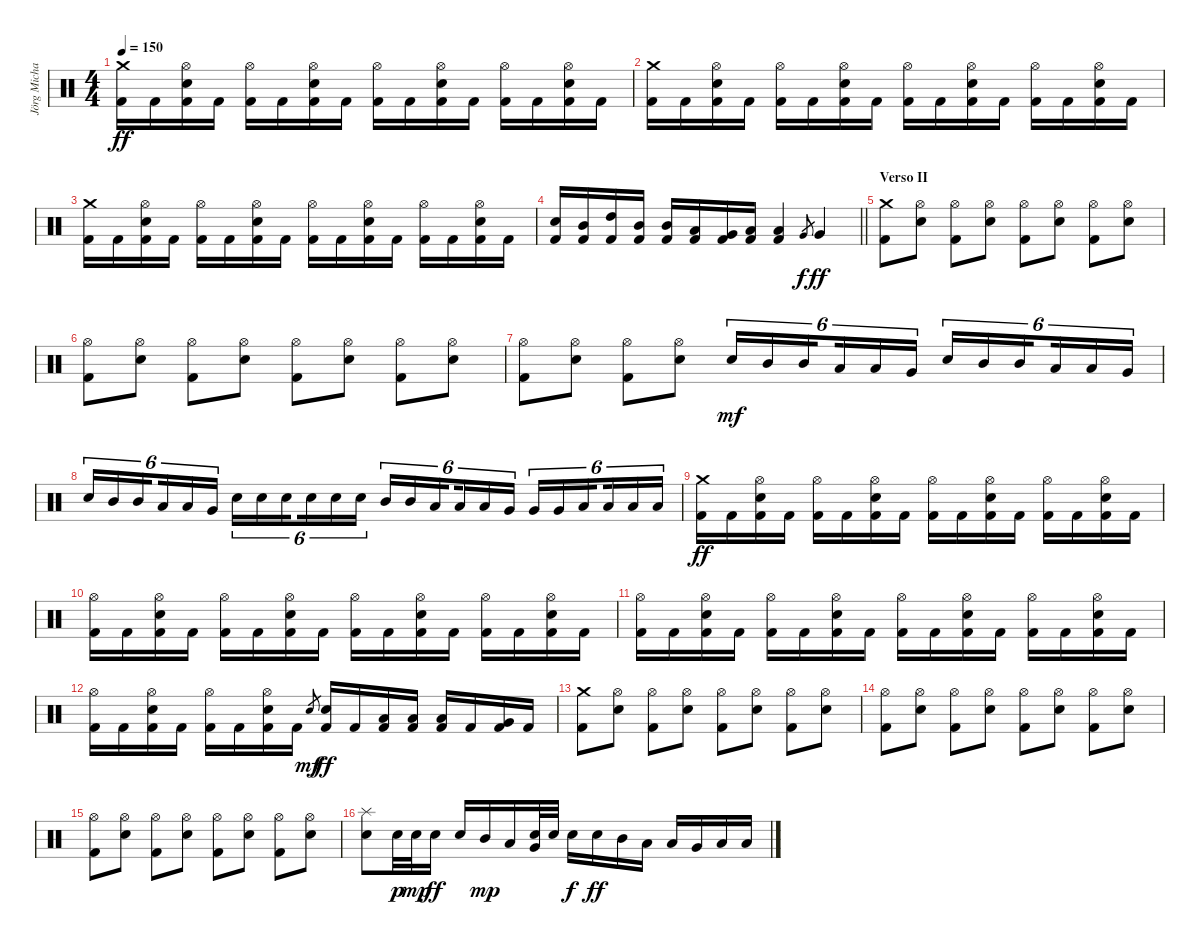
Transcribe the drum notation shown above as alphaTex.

\track ("Jörg Michael" "Jörg Micha") {instrument percussion}
\staff {score}
\articulation defaults
\ts (4 4)
\tempo 150
\clef neutral
\ks c
("Crash medium (hit)" "Kick (hit) 2").16{dy ff} "Kick (hit) 2".16 ("Hi-Hat (open)" "Electric Snare (hit)" "Kick (hit) 2").16 "Kick (hit) 2".16 ("Hi-Hat (open)" "Kick (hit) 2").16 "Kick (hit) 2".16 ("Hi-Hat (open)" "Electric Snare (hit)" "Kick (hit) 2").16 "Kick (hit) 2".16 ("Hi-Hat (open)" "Kick (hit) 2").16 "Kick (hit) 2".16 ("Hi-Hat (open)" "Electric Snare (hit)" "Kick (hit) 2").16 "Kick (hit) 2".16 ("Hi-Hat (open)" "Kick (hit) 2").16 "Kick (hit) 2".16 ("Hi-Hat (open)" "Electric Snare (hit)" "Kick (hit) 2").16 "Kick (hit) 2".16 |
("Crash medium (hit)" "Kick (hit) 2").16 "Kick (hit) 2".16 ("Hi-Hat (open)" "Electric Snare (hit)" "Kick (hit) 2").16 "Kick (hit) 2".16 ("Hi-Hat (open)" "Kick (hit) 2").16 "Kick (hit) 2".16 ("Hi-Hat (open)" "Electric Snare (hit)" "Kick (hit) 2").16 "Kick (hit) 2".16 ("Hi-Hat (open)" "Kick (hit) 2").16 "Kick (hit) 2".16 ("Hi-Hat (open)" "Electric Snare (hit)" "Kick (hit) 2").16 "Kick (hit) 2".16 ("Hi-Hat (open)" "Kick (hit) 2").16 "Kick (hit) 2".16 ("Hi-Hat (open)" "Electric Snare (hit)" "Kick (hit) 2").16 "Kick (hit) 2".16 |
("Crash medium (hit)" "Kick (hit) 2").16 "Kick (hit) 2".16 ("Hi-Hat (open)" "Electric Snare (hit)" "Kick (hit) 2").16 "Kick (hit) 2".16 ("Hi-Hat (open)" "Kick (hit) 2").16 "Kick (hit) 2".16 ("Hi-Hat (open)" "Electric Snare (hit)" "Kick (hit) 2").16 "Kick (hit) 2".16 ("Hi-Hat (open)" "Kick (hit) 2").16 "Kick (hit) 2".16 ("Hi-Hat (open)" "Electric Snare (hit)" "Kick (hit) 2").16 "Kick (hit) 2".16 ("Hi-Hat (open)" "Kick (hit) 2").16 "Kick (hit) 2".16 ("Hi-Hat (open)" "Electric Snare (hit)" "Kick (hit) 2").16 "Kick (hit) 2".16 |
\barLineRight lightlight
("Electric Snare (hit)" "Kick (hit) 2").16 ("Mid Tom (hit)" "Kick (hit) 2").16 ("High Tom (hit)" "Kick (hit) 2").16 ("Mid Tom (hit)" "Kick (hit) 2").16 ("Mid Tom (hit)" "Kick (hit) 2").16 ("Low Tom (hit)" "Kick (hit) 2").16 ("Very Low Tom (hit)" "Kick (hit) 2").16 ("Low Floor Tom (hit)" "Kick (hit) 2").16 ("Low Tom (hit)" "Kick (hit) 2").4 "Very Low Tom (hit)".8{gr dy f} "Very Low Tom (hit)".4{dy ff} |
\section ("" "Verso II")
("Crash medium (hit)" "Kick (hit) 2").8 ("Hi-Hat (open)" "Electric Snare (hit)").8 ("Hi-Hat (open)" "Kick (hit) 2").8 ("Hi-Hat (open)" "Electric Snare (hit)").8 ("Hi-Hat (open)" "Kick (hit) 2").8 ("Hi-Hat (open)" "Electric Snare (hit)").8 ("Hi-Hat (open)" "Kick (hit) 2").8 ("Hi-Hat (open)" "Electric Snare (hit)").8 |
("Hi-Hat (open)" "Kick (hit) 2").8 ("Hi-Hat (open)" "Electric Snare (hit)").8 ("Hi-Hat (open)" "Kick (hit) 2").8 ("Hi-Hat (open)" "Electric Snare (hit)").8 ("Hi-Hat (open)" "Kick (hit) 2").8 ("Hi-Hat (open)" "Electric Snare (hit)").8 ("Hi-Hat (open)" "Kick (hit) 2").8 ("Hi-Hat (open)" "Electric Snare (hit)").8 |
("Hi-Hat (open)" "Kick (hit) 2").8 ("Hi-Hat (open)" "Electric Snare (hit)").8 ("Hi-Hat (open)" "Kick (hit) 2").8 ("Hi-Hat (open)" "Electric Snare (hit)").8 "Electric Snare (hit)".16{tu (6 4) dy mf} "Mid Tom (hit)".16{tu (6 4)} "Mid Tom (hit)".16{tu (6 4) beam splitsecondary} "Low Tom (hit)".16{tu (6 4)} "Low Tom (hit)".16{tu (6 4)} "Very Low Tom (hit)".16{tu (6 4)} "Electric Snare (hit)".16{tu (6 4)} "Mid Tom (hit)".16{tu (6 4)} "Mid Tom (hit)".16{tu (6 4) beam splitsecondary} "Low Tom (hit)".16{tu (6 4)} "Low Tom (hit)".16{tu (6 4)} "Very Low Tom (hit)".16{tu (6 4)} |
"Electric Snare (hit)".16{tu (6 4)} "Mid Tom (hit)".16{tu (6 4)} "Mid Tom (hit)".16{tu (6 4) beam splitsecondary} "Low Tom (hit)".16{tu (6 4)} "Low Tom (hit)".16{tu (6 4)} "Very Low Tom (hit)".16{tu (6 4)} "Electric Snare (hit)".16{tu (6 4)} "Electric Snare (hit)".16{tu (6 4)} "Electric Snare (hit)".16{tu (6 4) beam splitsecondary} "Electric Snare (hit)".16{tu (6 4)} "Electric Snare (hit)".16{tu (6 4)} "Electric Snare (hit)".16{tu (6 4)} "Mid Tom (hit)".16{tu (6 4)} "Mid Tom (hit)".16{tu (6 4)} "Low Tom (hit)".16{tu (6 4) beam splitsecondary} "Low Tom (hit)".16{tu (6 4)} "Low Tom (hit)".16{tu (6 4)} "Very Low Tom (hit)".16{tu (6 4)} "Very Low Tom (hit)".16{tu (6 4)} "Very Low Tom (hit)".16{tu (6 4)} "Low Floor Tom (hit)".16{tu (6 4) beam splitsecondary} "Low Floor Tom (hit)".16{tu (6 4)} "Low Floor Tom (hit)".16{tu (6 4)} "Low Floor Tom (hit)".16{tu (6 4)} |
("Crash medium (hit)" "Kick (hit) 2").16{dy ff} "Kick (hit) 2".16 ("Hi-Hat (open)" "Electric Snare (hit)" "Kick (hit) 2").16 "Kick (hit) 2".16 ("Hi-Hat (open)" "Kick (hit) 2").16 "Kick (hit) 2".16 ("Hi-Hat (open)" "Electric Snare (hit)" "Kick (hit) 2").16 "Kick (hit) 2".16 ("Hi-Hat (open)" "Kick (hit) 2").16 "Kick (hit) 2".16 ("Hi-Hat (open)" "Electric Snare (hit)" "Kick (hit) 2").16 "Kick (hit) 2".16 ("Hi-Hat (open)" "Kick (hit) 2").16 "Kick (hit) 2".16 ("Hi-Hat (open)" "Electric Snare (hit)" "Kick (hit) 2").16 "Kick (hit) 2".16 |
("Hi-Hat (open)" "Kick (hit) 2").16 "Kick (hit) 2".16 ("Hi-Hat (open)" "Electric Snare (hit)" "Kick (hit) 2").16 "Kick (hit) 2".16 ("Hi-Hat (open)" "Kick (hit) 2").16 "Kick (hit) 2".16 ("Hi-Hat (open)" "Electric Snare (hit)" "Kick (hit) 2").16 "Kick (hit) 2".16 ("Hi-Hat (open)" "Kick (hit) 2").16 "Kick (hit) 2".16 ("Hi-Hat (open)" "Electric Snare (hit)" "Kick (hit) 2").16 "Kick (hit) 2".16 ("Hi-Hat (open)" "Kick (hit) 2").16 "Kick (hit) 2".16 ("Hi-Hat (open)" "Electric Snare (hit)" "Kick (hit) 2").16 "Kick (hit) 2".16 |
("Hi-Hat (open)" "Kick (hit) 2").16 "Kick (hit) 2".16 ("Hi-Hat (open)" "Electric Snare (hit)" "Kick (hit) 2").16 "Kick (hit) 2".16 ("Hi-Hat (open)" "Kick (hit) 2").16 "Kick (hit) 2".16 ("Hi-Hat (open)" "Electric Snare (hit)" "Kick (hit) 2").16 "Kick (hit) 2".16 ("Hi-Hat (open)" "Kick (hit) 2").16 "Kick (hit) 2".16 ("Hi-Hat (open)" "Electric Snare (hit)" "Kick (hit) 2").16 "Kick (hit) 2".16 ("Hi-Hat (open)" "Kick (hit) 2").16 "Kick (hit) 2".16 ("Hi-Hat (open)" "Electric Snare (hit)" "Kick (hit) 2").16 "Kick (hit) 2".16 |
("Hi-Hat (open)" "Kick (hit) 2").16 "Kick (hit) 2".16 ("Hi-Hat (open)" "Electric Snare (hit)" "Kick (hit) 2").16 "Kick (hit) 2".16 ("Hi-Hat (open)" "Kick (hit) 2").16 "Kick (hit) 2".16 ("Hi-Hat (open)" "Electric Snare (hit)" "Kick (hit) 2").16 "Kick (hit) 2".16 "Electric Snare (hit)".8{gr dy mf} ("Electric Snare (hit)" "Kick (hit) 2").16{dy ff} "Kick (hit) 2".16 ("Low Tom (hit)" "Kick (hit) 2").16 ("Low Tom (hit)" "Kick (hit) 2").16 ("Low Tom (hit)" "Kick (hit) 2").16 "Kick (hit) 2".16 ("Very Low Tom (hit)" "Kick (hit) 2").16 "Kick (hit) 2".16 |
("Crash medium (hit)" "Kick (hit) 2").8 ("Hi-Hat (open)" "Electric Snare (hit)").8 ("Hi-Hat (open)" "Kick (hit) 2").8 ("Hi-Hat (open)" "Electric Snare (hit)").8 ("Hi-Hat (open)" "Kick (hit) 2").8 ("Hi-Hat (open)" "Electric Snare (hit)").8 ("Hi-Hat (open)" "Kick (hit) 2").8 ("Hi-Hat (open)" "Electric Snare (hit)").8 |
("Hi-Hat (open)" "Kick (hit) 2").8 ("Hi-Hat (open)" "Electric Snare (hit)").8 ("Hi-Hat (open)" "Kick (hit) 2").8 ("Hi-Hat (open)" "Electric Snare (hit)").8 ("Hi-Hat (open)" "Kick (hit) 2").8 ("Hi-Hat (open)" "Electric Snare (hit)").8 ("Hi-Hat (open)" "Kick (hit) 2").8 ("Hi-Hat (open)" "Electric Snare (hit)").8 |
("Hi-Hat (open)" "Kick (hit) 2").8 ("Hi-Hat (open)" "Electric Snare (hit)").8 ("Hi-Hat (open)" "Kick (hit) 2").8 ("Hi-Hat (open)" "Electric Snare (hit)").8 ("Hi-Hat (open)" "Kick (hit) 2").8 ("Hi-Hat (open)" "Electric Snare (hit)").8 ("Hi-Hat (open)" "Kick (hit) 2").8 ("Hi-Hat (open)" "Electric Snare (hit)").8 |
("Splash (hit)" "Electric Snare (hit)").8 "Electric Snare (hit)".32{dy p} "Electric Snare (hit)".32{dy mp} "Electric Snare (hit)".16{dy ff} "Electric Snare (hit)".16 "Mid Tom (hit)".16{dy mp} "Low Tom (hit)".16 ("Very Low Tom (hit)" "Electric Snare (hit)").32 "Electric Snare (hit)".32 "Electric Snare (hit)".16{dy f} "Electric Snare (hit)".16{dy ff} "Mid Tom (hit)".16 "Low Tom (hit)".16 "Low Tom (hit)".16 "Very Low Tom (hit)".16 "Low Floor Tom (hit)".16 "Low Floor Tom (hit)".16
